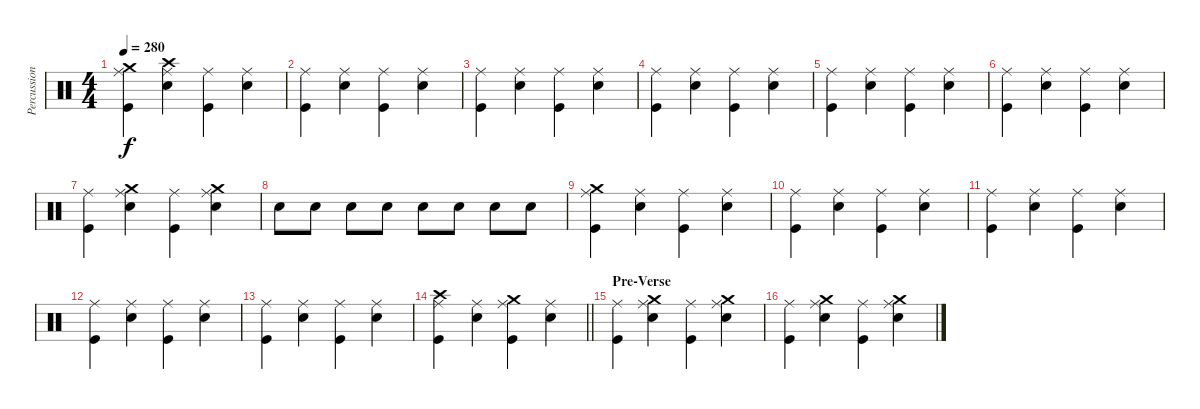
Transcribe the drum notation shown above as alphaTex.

\track ("Percussion" "Percussion") {instrument percussion}
\staff {score}
\articulation defaults
\ts (4 4)
\tempo 280
\clef neutral
\ks c
("Crash medium (hit)" "Ride (middle)" "Kick (hit)").4{dy f} ("Crash high (hit)" "Ride (middle)" "Snare (hit) 2").4 ("Ride (middle)" "Kick (hit)").4 ("Ride (middle)" "Snare (hit) 2").4 |
("Ride (middle)" "Kick (hit)").4 ("Ride (middle)" "Snare (hit) 2").4 ("Ride (middle)" "Kick (hit)").4 ("Ride (middle)" "Snare (hit) 2").4 |
("Ride (middle)" "Kick (hit)").4 ("Ride (middle)" "Snare (hit) 2").4 ("Ride (middle)" "Kick (hit)").4 ("Ride (middle)" "Snare (hit) 2").4 |
("Ride (middle)" "Kick (hit)").4 ("Ride (middle)" "Snare (hit) 2").4 ("Ride (middle)" "Kick (hit)").4 ("Ride (middle)" "Snare (hit) 2").4 |
("Ride (middle)" "Kick (hit)").4 ("Ride (middle)" "Snare (hit) 2").4 ("Ride (middle)" "Kick (hit)").4 ("Ride (middle)" "Snare (hit) 2").4 |
("Ride (middle)" "Kick (hit)").4 ("Ride (middle)" "Snare (hit) 2").4 ("Ride (middle)" "Kick (hit)").4 ("Ride (middle)" "Snare (hit) 2").4 |
("Ride (middle)" "Kick (hit)").4 ("Crash medium (hit)" "Ride (middle)" "Snare (hit) 2").4 ("Ride (middle)" "Kick (hit)").4 ("Crash medium (hit)" "Ride (middle)" "Snare (hit) 2").4 |
"Snare (hit) 2".8 "Snare (hit) 2".8 "Snare (hit) 2".8 "Snare (hit) 2".8 "Snare (hit) 2".8 "Snare (hit) 2".8 "Snare (hit) 2".8 "Snare (hit) 2".8 |
("Crash medium (hit)" "Ride (middle)" "Kick (hit)").4 ("Ride (middle)" "Snare (hit) 2").4 ("Ride (middle)" "Kick (hit)").4 ("Ride (middle)" "Snare (hit) 2").4 |
("Ride (middle)" "Kick (hit)").4 ("Ride (middle)" "Snare (hit) 2").4 ("Ride (middle)" "Kick (hit)").4 ("Ride (middle)" "Snare (hit) 2").4 |
("Ride (middle)" "Kick (hit)").4 ("Ride (middle)" "Snare (hit) 2").4 ("Ride (middle)" "Kick (hit)").4 ("Ride (middle)" "Snare (hit) 2").4 |
("Ride (middle)" "Kick (hit)").4 ("Ride (middle)" "Snare (hit) 2").4 ("Ride (middle)" "Kick (hit)").4 ("Ride (middle)" "Snare (hit) 2").4 |
("Ride (middle)" "Kick (hit)").4 ("Ride (middle)" "Snare (hit) 2").4 ("Ride (middle)" "Kick (hit)").4 ("Ride (middle)" "Snare (hit) 2").4 |
\barLineRight lightlight
("Crash high (hit)" "Ride (middle)" "Kick (hit)").4 ("Ride (middle)" "Snare (hit) 2").4 ("Crash medium (hit)" "Ride (middle)" "Kick (hit)").4 ("Ride (middle)" "Snare (hit) 2").4 |
\section ("" "Pre-Verse")
("Ride (middle)" "Kick (hit)").4 ("Crash medium (hit)" "Ride (middle)" "Snare (hit) 2").4 ("Ride (middle)" "Kick (hit)").4 ("Crash medium (hit)" "Ride (middle)" "Snare (hit) 2").4 |
("Ride (middle)" "Kick (hit)").4 ("Crash medium (hit)" "Ride (middle)" "Snare (hit) 2").4 ("Ride (middle)" "Kick (hit)").4 ("Crash medium (hit)" "Ride (middle)" "Snare (hit) 2").4
